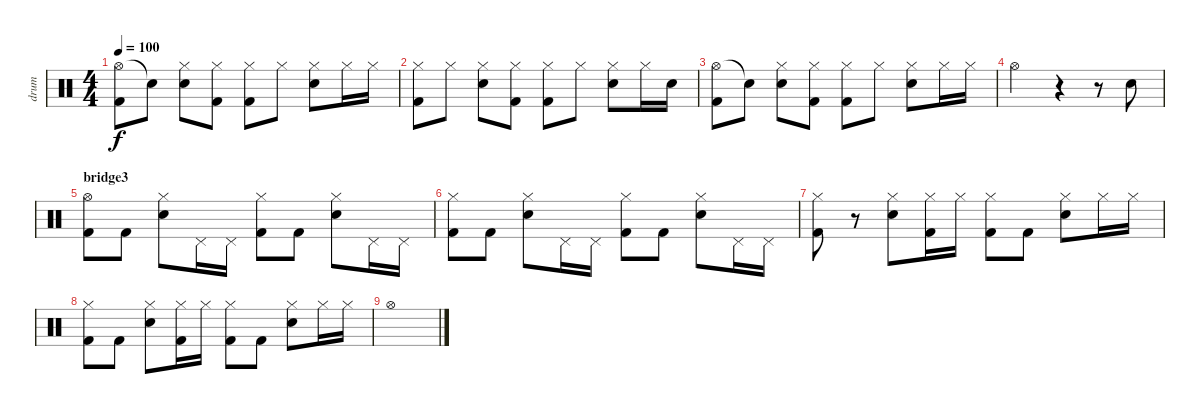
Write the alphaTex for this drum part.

\track ("drum" "drum") {instrument percussion}
\staff {score}
\articulation defaults
\ts (4 4)
\tempo 100
\clef neutral
\ks c
("Hi-Hat (open)" "Kick (hit) 2").8{dy f} "Snare (hit)"{t}.8 ("Hi-Hat (closed)" "Electric Snare (hit)").8 ("Hi-Hat (closed)" "Kick (hit) 2").8 ("Hi-Hat (closed)" "Kick (hit) 2").8 "Hi-Hat (closed)".8 ("Hi-Hat (closed)" "Electric Snare (hit)").8 "Hi-Hat (closed)".16 "Hi-Hat (closed)".16 |
("Hi-Hat (closed)" "Kick (hit) 2").8 "Hi-Hat (closed)".8 ("Hi-Hat (closed)" "Electric Snare (hit)").8 ("Hi-Hat (closed)" "Kick (hit) 2").8 ("Hi-Hat (closed)" "Kick (hit) 2").8 "Hi-Hat (closed)".8 ("Hi-Hat (closed)" "Electric Snare (hit)").8 "Hi-Hat (closed)".16 "Electric Snare (hit)".16 |
("Hi-Hat (open)" "Kick (hit) 2").8 "Snare (hit)"{t}.8 ("Hi-Hat (closed)" "Electric Snare (hit)").8 ("Hi-Hat (closed)" "Kick (hit) 2").8 ("Hi-Hat (closed)" "Kick (hit) 2").8 "Hi-Hat (closed)".8 ("Hi-Hat (closed)" "Electric Snare (hit)").8 "Hi-Hat (closed)".16 "Hi-Hat (closed)".16 |
"Hi-Hat (open)".2 r.4 r.8 "Electric Snare (hit)".8 |
\section ("" "bridge3")
("Hi-Hat (open)" "Kick (hit) 2").8 "Kick (hit) 2".8 ("Hi-Hat (closed)" "Electric Snare (hit)").8 "Pedal Hi-Hat (hit)".16 "Pedal Hi-Hat (hit)".16 ("Hi-Hat (closed)" "Kick (hit) 2").8 "Kick (hit) 2".8 ("Hi-Hat (closed)" "Electric Snare (hit)").8 "Pedal Hi-Hat (hit)".16 "Pedal Hi-Hat (hit)".16 |
("Hi-Hat (closed)" "Kick (hit) 2").8 "Kick (hit) 2".8 ("Hi-Hat (closed)" "Electric Snare (hit)").8 "Pedal Hi-Hat (hit)".16 "Pedal Hi-Hat (hit)".16 ("Hi-Hat (closed)" "Kick (hit) 2").8 "Kick (hit) 2".8 ("Hi-Hat (closed)" "Electric Snare (hit)").8 "Pedal Hi-Hat (hit)".16 "Pedal Hi-Hat (hit)".16 |
("Hi-Hat (closed)" "Kick (hit) 2").8 r.8 ("Hi-Hat (closed)" "Electric Snare (hit)").8 ("Hi-Hat (closed)" "Kick (hit) 2").16 "Hi-Hat (closed)".16 ("Hi-Hat (closed)" "Kick (hit) 2").8 "Kick (hit) 2".8 ("Hi-Hat (closed)" "Electric Snare (hit)").8 "Hi-Hat (closed)".16 "Hi-Hat (closed)".16 |
("Hi-Hat (closed)" "Kick (hit) 2").8 "Kick (hit) 2".8 ("Hi-Hat (closed)" "Electric Snare (hit)").8 ("Hi-Hat (closed)" "Kick (hit) 2").16 "Hi-Hat (closed)".16 ("Hi-Hat (closed)" "Kick (hit) 2").8 "Kick (hit) 2".8 ("Hi-Hat (closed)" "Electric Snare (hit)").8 "Hi-Hat (closed)".16 "Hi-Hat (closed)".16 |
"Hi-Hat (open)".1
